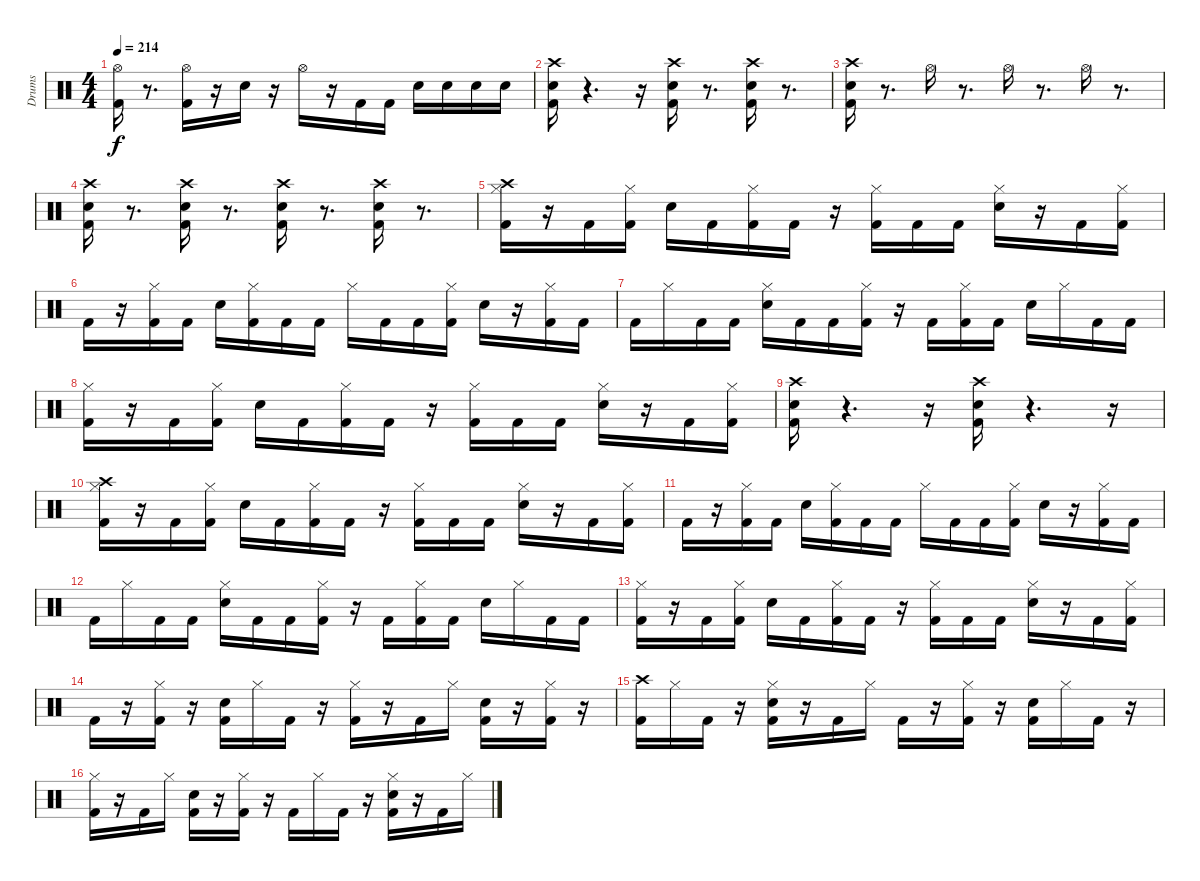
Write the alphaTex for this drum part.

\track ("Drums               " "Drums     ") {instrument percussion}
\staff {score}
\articulation defaults
\ts (4 4)
\tempo 214
\clef neutral
\ks c
("Kick (hit) 2" "Hi-Hat (open)").16{dy f} r.8{d} ("Kick (hit) 2" "Hi-Hat (open)").16 r.16 "Snare (hit) 2".16 r.16 "Hi-Hat (open)".16 r.16 "Kick (hit) 2".16 "Kick (hit) 2".16 "Snare (hit) 2".16 "Snare (hit) 2".16 "Snare (hit) 2".16 "Snare (hit) 2".16 |
("Kick (hit) 2" "Snare (hit) 2" "Crash high (hit)").16 r.4{d} r.16 ("Kick (hit) 2" "Snare (hit) 2" "Crash high (hit)").16 r.8{d} ("Kick (hit) 2" "Snare (hit) 2" "Crash high (hit)").16 r.8{d} |
("Kick (hit) 2" "Snare (hit) 2" "Crash high (hit)").16 r.8{d} "Hi-Hat (open)".16 r.8{d} "Hi-Hat (open)".16 r.8{d} "Hi-Hat (open)".16 r.8{d} |
("Kick (hit) 2" "Snare (hit) 2" "Crash high (hit)").16 r.8{d} ("Kick (hit) 2" "Snare (hit) 2" "Crash high (hit)").16 r.8{d} ("Kick (hit) 2" "Snare (hit) 2" "Crash high (hit)").16 r.8{d} ("Kick (hit) 2" "Snare (hit) 2" "Crash high (hit)").16 r.8{d} |
("Kick (hit) 2" "Hi-Hat (closed)" "Crash high (hit)").16 r.16 "Kick (hit) 2".16 ("Kick (hit) 2" "Hi-Hat (closed)").16 "Snare (hit) 2".16 "Kick (hit) 2".16 ("Kick (hit) 2" "Hi-Hat (closed)").16 "Kick (hit) 2".16 r.16 ("Kick (hit) 2" "Hi-Hat (closed)").16 "Kick (hit) 2".16 "Kick (hit) 2".16 ("Snare (hit) 2" "Hi-Hat (closed)").16 r.16 "Kick (hit) 2".16 ("Kick (hit) 2" "Hi-Hat (closed)").16 |
"Kick (hit) 2".16 r.16 ("Kick (hit) 2" "Hi-Hat (closed)").16 "Kick (hit) 2".16 "Snare (hit) 2".16 ("Kick (hit) 2" "Hi-Hat (closed)").16 "Kick (hit) 2".16 "Kick (hit) 2".16 "Hi-Hat (closed)".16 "Kick (hit) 2".16 "Kick (hit) 2".16 ("Kick (hit) 2" "Hi-Hat (closed)").16 "Snare (hit) 2".16 r.16 ("Kick (hit) 2" "Hi-Hat (closed)").16 "Kick (hit) 2".16 |
"Kick (hit) 2".16 "Hi-Hat (closed)".16 "Kick (hit) 2".16 "Kick (hit) 2".16 ("Snare (hit) 2" "Hi-Hat (closed)").16 "Kick (hit) 2".16 "Kick (hit) 2".16 ("Kick (hit) 2" "Hi-Hat (closed)").16 r.16 "Kick (hit) 2".16 ("Kick (hit) 2" "Hi-Hat (closed)").16 "Kick (hit) 2".16 "Snare (hit) 2".16 "Hi-Hat (closed)".16 "Kick (hit) 2".16 "Kick (hit) 2".16 |
("Kick (hit) 2" "Hi-Hat (closed)").16 r.16 "Kick (hit) 2".16 ("Kick (hit) 2" "Hi-Hat (closed)").16 "Snare (hit) 2".16 "Kick (hit) 2".16 ("Kick (hit) 2" "Hi-Hat (closed)").16 "Kick (hit) 2".16 r.16 ("Kick (hit) 2" "Hi-Hat (closed)").16 "Kick (hit) 2".16 "Kick (hit) 2".16 ("Snare (hit) 2" "Hi-Hat (closed)").16 r.16 "Kick (hit) 2".16 ("Kick (hit) 2" "Hi-Hat (closed)").16 |
("Kick (hit) 2" "Snare (hit) 2" "Crash high (hit)").16 r.4{d} r.16 ("Kick (hit) 2" "Snare (hit) 2" "Crash high (hit)").16 r.4{d} r.16 |
("Kick (hit) 2" "Hi-Hat (closed)" "Crash high (hit)").16 r.16 "Kick (hit) 2".16 ("Kick (hit) 2" "Hi-Hat (closed)").16 "Snare (hit) 2".16 "Kick (hit) 2".16 ("Kick (hit) 2" "Hi-Hat (closed)").16 "Kick (hit) 2".16 r.16 ("Kick (hit) 2" "Hi-Hat (closed)").16 "Kick (hit) 2".16 "Kick (hit) 2".16 ("Snare (hit) 2" "Hi-Hat (closed)").16 r.16 "Kick (hit) 2".16 ("Kick (hit) 2" "Hi-Hat (closed)").16 |
"Kick (hit) 2".16 r.16 ("Kick (hit) 2" "Hi-Hat (closed)").16 "Kick (hit) 2".16 "Snare (hit) 2".16 ("Kick (hit) 2" "Hi-Hat (closed)").16 "Kick (hit) 2".16 "Kick (hit) 2".16 "Hi-Hat (closed)".16 "Kick (hit) 2".16 "Kick (hit) 2".16 ("Kick (hit) 2" "Hi-Hat (closed)").16 "Snare (hit) 2".16 r.16 ("Kick (hit) 2" "Hi-Hat (closed)").16 "Kick (hit) 2".16 |
"Kick (hit) 2".16 "Hi-Hat (closed)".16 "Kick (hit) 2".16 "Kick (hit) 2".16 ("Snare (hit) 2" "Hi-Hat (closed)").16 "Kick (hit) 2".16 "Kick (hit) 2".16 ("Kick (hit) 2" "Hi-Hat (closed)").16 r.16 "Kick (hit) 2".16 ("Kick (hit) 2" "Hi-Hat (closed)").16 "Kick (hit) 2".16 "Snare (hit) 2".16 "Hi-Hat (closed)".16 "Kick (hit) 2".16 "Kick (hit) 2".16 |
("Kick (hit) 2" "Hi-Hat (closed)").16 r.16 "Kick (hit) 2".16 ("Kick (hit) 2" "Hi-Hat (closed)").16 "Snare (hit) 2".16 "Kick (hit) 2".16 ("Kick (hit) 2" "Hi-Hat (closed)").16 "Kick (hit) 2".16 r.16 ("Kick (hit) 2" "Hi-Hat (closed)").16 "Kick (hit) 2".16 "Kick (hit) 2".16 ("Snare (hit) 2" "Hi-Hat (closed)").16 r.16 "Kick (hit) 2".16 ("Kick (hit) 2" "Hi-Hat (closed)").16 |
"Kick (hit) 2".16 r.16 ("Kick (hit) 2" "Hi-Hat (closed)").16 r.16 ("Kick (hit) 2" "Snare (hit) 2").16 "Hi-Hat (closed)".16 "Kick (hit) 2".16 r.16 ("Kick (hit) 2" "Hi-Hat (closed)").16 r.16 "Kick (hit) 2".16 "Hi-Hat (closed)".16 ("Kick (hit) 2" "Snare (hit) 2").16 r.16 ("Kick (hit) 2" "Hi-Hat (closed)").16 r.16 |
("Kick (hit) 2" "Crash high (hit)").16 "Hi-Hat (closed)".16 "Kick (hit) 2".16 r.16 ("Kick (hit) 2" "Snare (hit) 2" "Hi-Hat (closed)").16 r.16 "Kick (hit) 2".16 "Hi-Hat (closed)".16 "Kick (hit) 2".16 r.16 ("Kick (hit) 2" "Hi-Hat (closed)").16 r.16 ("Kick (hit) 2" "Snare (hit) 2").16 "Hi-Hat (closed)".16 "Kick (hit) 2".16 r.16 |
("Kick (hit) 2" "Hi-Hat (closed)").16 r.16 "Kick (hit) 2".16 "Hi-Hat (closed)".16 ("Kick (hit) 2" "Snare (hit) 2").16 r.16 ("Kick (hit) 2" "Hi-Hat (closed)").16 r.16 "Kick (hit) 2".16 "Hi-Hat (closed)".16 "Kick (hit) 2".16 r.16 ("Kick (hit) 2" "Snare (hit) 2" "Hi-Hat (closed)").16 r.16 "Kick (hit) 2".16 "Hi-Hat (closed)".16
